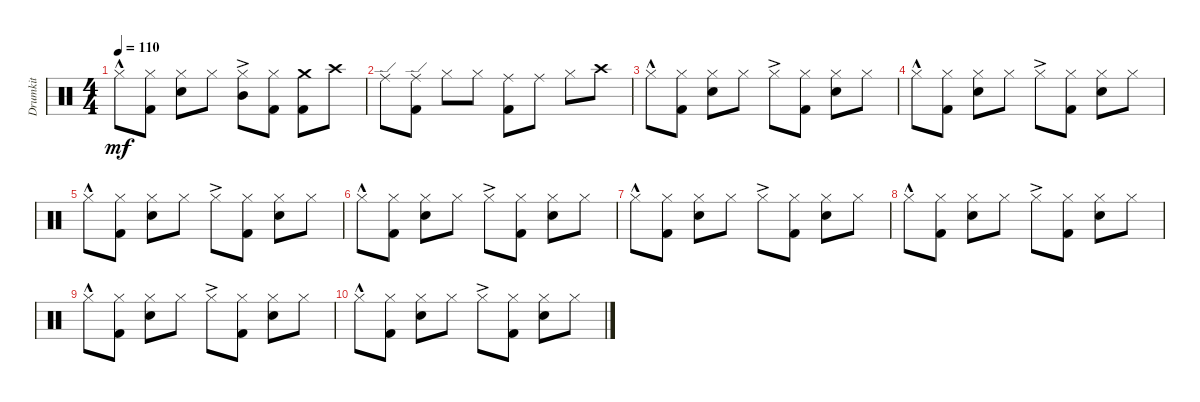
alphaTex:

\track ("Drumkit" "Drumkit") {instrument percussion}
\staff {score}
\articulation defaults
\ts (4 4)
\tempo 110
\clef neutral
\ks c "Hi-Hat (closed)"{hac}.8{dy mf}
("Hi-Hat (closed)" "Kick (hit) 2").8 ("Hi-Hat (closed)" "Snare (hit) 2").8 "Hi-Hat (closed)".8 ("Hi-Hat (closed)"{ac} "Mid Tom (hit)").8 ("Hi-Hat (closed)" "Kick (hit) 2").8 ("Crash medium (hit)" "Kick (hit) 2").8 "Crash high (hit)".8 |
"Ride (edge)".8 ("Ride (edge)" "Kick (hit) 2").8 "Hi-Hat (closed)".8 "Hi-Hat (closed)".8 ("Ride (middle)" "Kick (hit) 2").8 "Ride (middle)".8 "Hi-Hat (closed)".8 "Crash high (hit)".8 |
"Hi-Hat (closed)"{hac}.8 ("Hi-Hat (closed)" "Kick (hit) 2").8 ("Hi-Hat (closed)" "Snare (hit) 2").8 "Hi-Hat (closed)".8 "Hi-Hat (closed)"{ac}.8 ("Hi-Hat (closed)" "Kick (hit) 2").8 ("Hi-Hat (closed)" "Snare (hit) 2").8 "Hi-Hat (closed)".8 |
"Hi-Hat (closed)"{hac}.8 ("Hi-Hat (closed)" "Kick (hit) 2").8 ("Hi-Hat (closed)" "Snare (hit) 2").8 "Hi-Hat (closed)".8 "Hi-Hat (closed)"{ac}.8 ("Hi-Hat (closed)" "Kick (hit) 2").8 ("Hi-Hat (closed)" "Snare (hit) 2").8 "Hi-Hat (closed)".8 |
"Hi-Hat (closed)"{hac}.8 ("Hi-Hat (closed)" "Kick (hit) 2").8 ("Hi-Hat (closed)" "Snare (hit) 2").8 "Hi-Hat (closed)".8 "Hi-Hat (closed)"{ac}.8 ("Hi-Hat (closed)" "Kick (hit) 2").8 ("Hi-Hat (closed)" "Snare (hit) 2").8 "Hi-Hat (closed)".8 |
"Hi-Hat (closed)"{hac}.8 ("Hi-Hat (closed)" "Kick (hit) 2").8 ("Hi-Hat (closed)" "Snare (hit) 2").8 "Hi-Hat (closed)".8 "Hi-Hat (closed)"{ac}.8 ("Hi-Hat (closed)" "Kick (hit) 2").8 ("Hi-Hat (closed)" "Snare (hit) 2").8 "Hi-Hat (closed)".8 |
"Hi-Hat (closed)"{hac}.8 ("Hi-Hat (closed)" "Kick (hit) 2").8 ("Hi-Hat (closed)" "Snare (hit) 2").8 "Hi-Hat (closed)".8 "Hi-Hat (closed)"{ac}.8 ("Hi-Hat (closed)" "Kick (hit) 2").8 ("Hi-Hat (closed)" "Snare (hit) 2").8 "Hi-Hat (closed)".8 |
"Hi-Hat (closed)"{hac}.8 ("Hi-Hat (closed)" "Kick (hit) 2").8 ("Hi-Hat (closed)" "Snare (hit) 2").8 "Hi-Hat (closed)".8 "Hi-Hat (closed)"{ac}.8 ("Hi-Hat (closed)" "Kick (hit) 2").8 ("Hi-Hat (closed)" "Snare (hit) 2").8 "Hi-Hat (closed)".8 |
"Hi-Hat (closed)"{hac}.8 ("Hi-Hat (closed)" "Kick (hit) 2").8 ("Hi-Hat (closed)" "Snare (hit) 2").8 "Hi-Hat (closed)".8 "Hi-Hat (closed)"{ac}.8 ("Hi-Hat (closed)" "Kick (hit) 2").8 ("Hi-Hat (closed)" "Snare (hit) 2").8 "Hi-Hat (closed)".8 |
"Hi-Hat (closed)"{hac}.8 ("Hi-Hat (closed)" "Kick (hit) 2").8 ("Hi-Hat (closed)" "Snare (hit) 2").8 "Hi-Hat (closed)".8 "Hi-Hat (closed)"{ac}.8 ("Hi-Hat (closed)" "Kick (hit) 2").8 ("Hi-Hat (closed)" "Snare (hit) 2").8 "Hi-Hat (closed)".8
